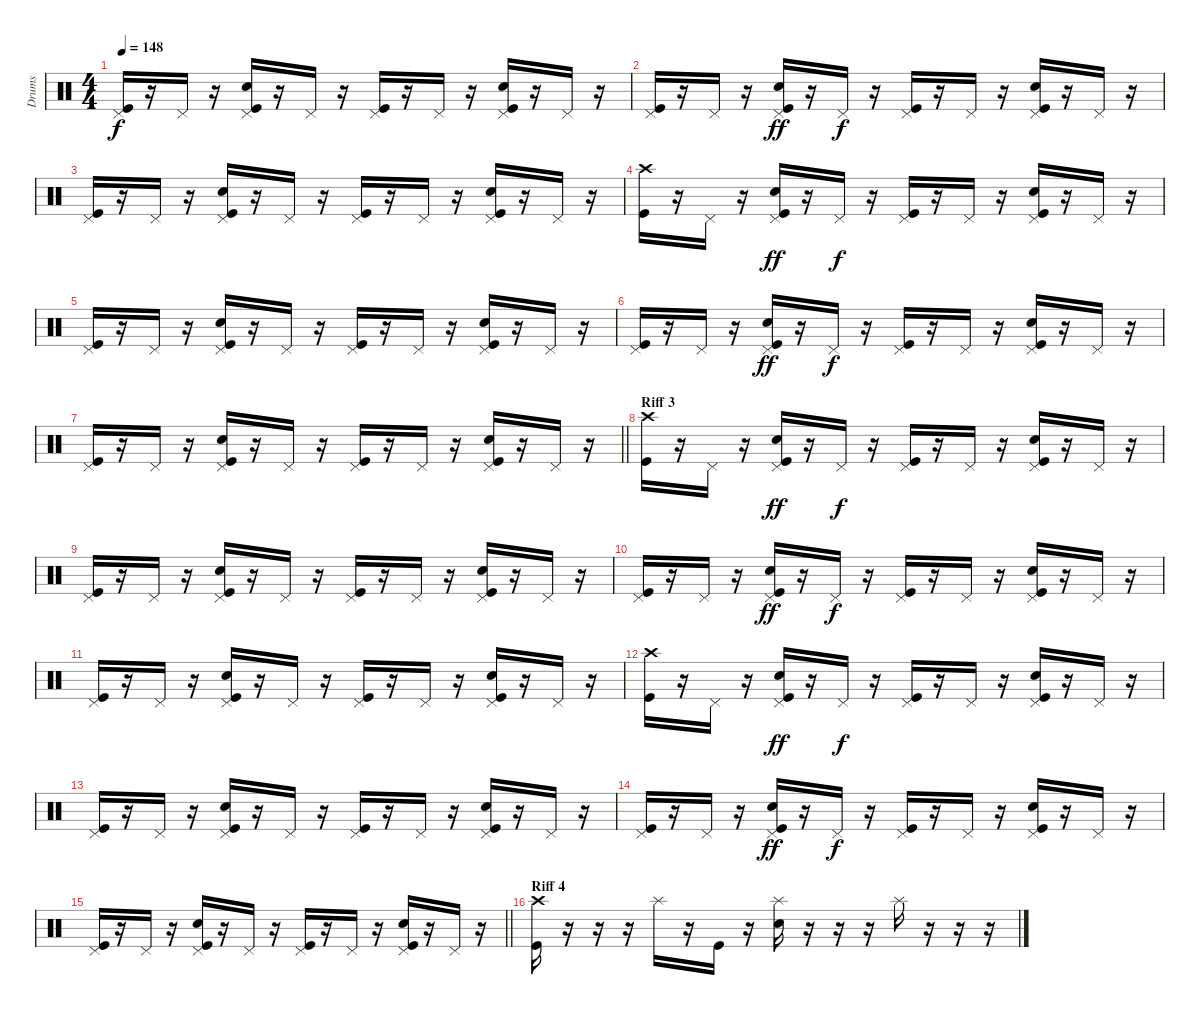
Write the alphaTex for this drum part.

\track ("Drums" "Drums") {instrument percussion}
\staff {score}
\articulation defaults
\ts (4 4)
\tempo 148
\clef neutral
\ks c
("Pedal Hi-Hat (hit)" "Kick (hit)").16{dy f} r.16 "Pedal Hi-Hat (hit)".16 r.16 ("Pedal Hi-Hat (hit)" "Electric Snare (hit)" "Kick (hit)").16 r.16 "Pedal Hi-Hat (hit)".16 r.16 ("Pedal Hi-Hat (hit)" "Kick (hit)").16 r.16 "Pedal Hi-Hat (hit)".16 r.16 ("Pedal Hi-Hat (hit)" "Electric Snare (hit)" "Kick (hit)").16 r.16 "Pedal Hi-Hat (hit)".16 r.16 |
("Pedal Hi-Hat (hit)" "Kick (hit)").16 r.16 "Pedal Hi-Hat (hit)".16 r.16 ("Pedal Hi-Hat (hit)" "Electric Snare (hit)" "Kick (hit)").16{dy ff} r.16 "Pedal Hi-Hat (hit)".16{dy f} r.16 ("Pedal Hi-Hat (hit)" "Kick (hit)").16 r.16 "Pedal Hi-Hat (hit)".16 r.16 ("Pedal Hi-Hat (hit)" "Electric Snare (hit)" "Kick (hit)").16 r.16 "Pedal Hi-Hat (hit)".16 r.16 |
("Pedal Hi-Hat (hit)" "Kick (hit)").16 r.16 "Pedal Hi-Hat (hit)".16 r.16 ("Pedal Hi-Hat (hit)" "Electric Snare (hit)" "Kick (hit)").16 r.16 "Pedal Hi-Hat (hit)".16 r.16 ("Pedal Hi-Hat (hit)" "Kick (hit)").16 r.16 "Pedal Hi-Hat (hit)".16 r.16 ("Pedal Hi-Hat (hit)" "Electric Snare (hit)" "Kick (hit)").16 r.16 "Pedal Hi-Hat (hit)".16 r.16 |
("Crash high (hit)" "Kick (hit)").16 r.16 "Pedal Hi-Hat (hit)".16 r.16 ("Pedal Hi-Hat (hit)" "Electric Snare (hit)" "Kick (hit)").16{dy ff} r.16 "Pedal Hi-Hat (hit)".16{dy f} r.16 ("Pedal Hi-Hat (hit)" "Kick (hit)").16 r.16 "Pedal Hi-Hat (hit)".16 r.16 ("Pedal Hi-Hat (hit)" "Electric Snare (hit)" "Kick (hit)").16 r.16 "Pedal Hi-Hat (hit)".16 r.16 |
("Pedal Hi-Hat (hit)" "Kick (hit)").16 r.16 "Pedal Hi-Hat (hit)".16 r.16 ("Pedal Hi-Hat (hit)" "Electric Snare (hit)" "Kick (hit)").16 r.16 "Pedal Hi-Hat (hit)".16 r.16 ("Pedal Hi-Hat (hit)" "Kick (hit)").16 r.16 "Pedal Hi-Hat (hit)".16 r.16 ("Pedal Hi-Hat (hit)" "Electric Snare (hit)" "Kick (hit)").16 r.16 "Pedal Hi-Hat (hit)".16 r.16 |
("Pedal Hi-Hat (hit)" "Kick (hit)").16 r.16 "Pedal Hi-Hat (hit)".16 r.16 ("Pedal Hi-Hat (hit)" "Electric Snare (hit)" "Kick (hit)").16{dy ff} r.16 "Pedal Hi-Hat (hit)".16{dy f} r.16 ("Pedal Hi-Hat (hit)" "Kick (hit)").16 r.16 "Pedal Hi-Hat (hit)".16 r.16 ("Pedal Hi-Hat (hit)" "Electric Snare (hit)" "Kick (hit)").16 r.16 "Pedal Hi-Hat (hit)".16 r.16 |
\barLineRight lightlight
("Pedal Hi-Hat (hit)" "Kick (hit)").16 r.16 "Pedal Hi-Hat (hit)".16 r.16 ("Pedal Hi-Hat (hit)" "Electric Snare (hit)" "Kick (hit)").16 r.16 "Pedal Hi-Hat (hit)".16 r.16 ("Pedal Hi-Hat (hit)" "Kick (hit)").16 r.16 "Pedal Hi-Hat (hit)".16 r.16 ("Pedal Hi-Hat (hit)" "Electric Snare (hit)" "Kick (hit)").16 r.16 "Pedal Hi-Hat (hit)".16 r.16 |
\section ("" "Riff 3")
("Crash high (hit)" "Kick (hit)").16 r.16 "Pedal Hi-Hat (hit)".16 r.16 ("Pedal Hi-Hat (hit)" "Electric Snare (hit)" "Kick (hit)").16{dy ff} r.16 "Pedal Hi-Hat (hit)".16{dy f} r.16 ("Pedal Hi-Hat (hit)" "Kick (hit)").16 r.16 "Pedal Hi-Hat (hit)".16 r.16 ("Pedal Hi-Hat (hit)" "Electric Snare (hit)" "Kick (hit)").16 r.16 "Pedal Hi-Hat (hit)".16 r.16 |
("Pedal Hi-Hat (hit)" "Kick (hit)").16 r.16 "Pedal Hi-Hat (hit)".16 r.16 ("Pedal Hi-Hat (hit)" "Electric Snare (hit)" "Kick (hit)").16 r.16 "Pedal Hi-Hat (hit)".16 r.16 ("Pedal Hi-Hat (hit)" "Kick (hit)").16 r.16 "Pedal Hi-Hat (hit)".16 r.16 ("Pedal Hi-Hat (hit)" "Electric Snare (hit)" "Kick (hit)").16 r.16 "Pedal Hi-Hat (hit)".16 r.16 |
("Pedal Hi-Hat (hit)" "Kick (hit)").16 r.16 "Pedal Hi-Hat (hit)".16 r.16 ("Pedal Hi-Hat (hit)" "Electric Snare (hit)" "Kick (hit)").16{dy ff} r.16 "Pedal Hi-Hat (hit)".16{dy f} r.16 ("Pedal Hi-Hat (hit)" "Kick (hit)").16 r.16 "Pedal Hi-Hat (hit)".16 r.16 ("Pedal Hi-Hat (hit)" "Electric Snare (hit)" "Kick (hit)").16 r.16 "Pedal Hi-Hat (hit)".16 r.16 |
("Pedal Hi-Hat (hit)" "Kick (hit)").16 r.16 "Pedal Hi-Hat (hit)".16 r.16 ("Pedal Hi-Hat (hit)" "Electric Snare (hit)" "Kick (hit)").16 r.16 "Pedal Hi-Hat (hit)".16 r.16 ("Pedal Hi-Hat (hit)" "Kick (hit)").16 r.16 "Pedal Hi-Hat (hit)".16 r.16 ("Pedal Hi-Hat (hit)" "Electric Snare (hit)" "Kick (hit)").16 r.16 "Pedal Hi-Hat (hit)".16 r.16 |
("Crash high (hit)" "Kick (hit)").16 r.16 "Pedal Hi-Hat (hit)".16 r.16 ("Pedal Hi-Hat (hit)" "Electric Snare (hit)" "Kick (hit)").16{dy ff} r.16 "Pedal Hi-Hat (hit)".16{dy f} r.16 ("Pedal Hi-Hat (hit)" "Kick (hit)").16 r.16 "Pedal Hi-Hat (hit)".16 r.16 ("Pedal Hi-Hat (hit)" "Electric Snare (hit)" "Kick (hit)").16 r.16 "Pedal Hi-Hat (hit)".16 r.16 |
("Pedal Hi-Hat (hit)" "Kick (hit)").16 r.16 "Pedal Hi-Hat (hit)".16 r.16 ("Pedal Hi-Hat (hit)" "Electric Snare (hit)" "Kick (hit)").16 r.16 "Pedal Hi-Hat (hit)".16 r.16 ("Pedal Hi-Hat (hit)" "Kick (hit)").16 r.16 "Pedal Hi-Hat (hit)".16 r.16 ("Pedal Hi-Hat (hit)" "Electric Snare (hit)" "Kick (hit)").16 r.16 "Pedal Hi-Hat (hit)".16 r.16 |
("Pedal Hi-Hat (hit)" "Kick (hit)").16 r.16 "Pedal Hi-Hat (hit)".16 r.16 ("Pedal Hi-Hat (hit)" "Electric Snare (hit)" "Kick (hit)").16{dy ff} r.16 "Pedal Hi-Hat (hit)".16{dy f} r.16 ("Pedal Hi-Hat (hit)" "Kick (hit)").16 r.16 "Pedal Hi-Hat (hit)".16 r.16 ("Pedal Hi-Hat (hit)" "Electric Snare (hit)" "Kick (hit)").16 r.16 "Pedal Hi-Hat (hit)".16 r.16 |
\barLineRight lightlight
("Pedal Hi-Hat (hit)" "Kick (hit)").16 r.16 "Pedal Hi-Hat (hit)".16 r.16 ("Pedal Hi-Hat (hit)" "Electric Snare (hit)" "Kick (hit)").16 r.16 "Pedal Hi-Hat (hit)".16 r.16 ("Pedal Hi-Hat (hit)" "Kick (hit)").16 r.16 "Pedal Hi-Hat (hit)".16 r.16 ("Pedal Hi-Hat (hit)" "Electric Snare (hit)" "Kick (hit)").16 r.16 "Pedal Hi-Hat (hit)".16 r.16 |
\section ("" "Riff 4")
("Crash high (hit)" "Kick (hit)").16 r.16 r.16 r.16 "Splash (hit)".16 r.16 "Kick (hit)".16 r.16 ("Splash (hit)" "Electric Snare (hit)").16 r.16 r.16 r.16 "Splash (hit)".16 r.16 r.16 r.16
